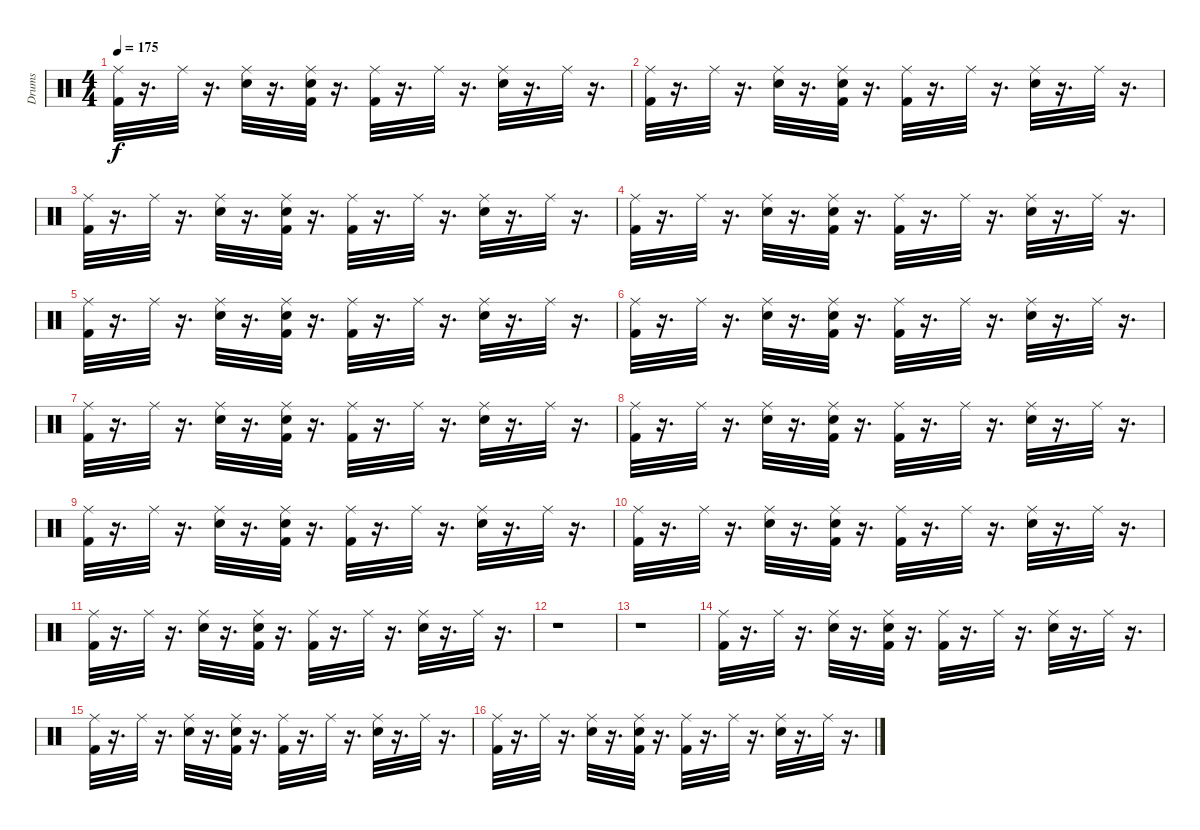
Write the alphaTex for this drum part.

\track ("Drums" "Drums") {instrument percussion}
\staff {score}
\articulation defaults
\ts (4 4)
\tempo 175
\clef neutral
\ks c
("Kick (hit) 2" "Ride (middle)").32{dy f} r.16{d} "Ride (middle)".32 r.16{d} ("Ride (middle)" "Snare (hit) 2").32 r.16{d} ("Snare (hit) 2" "Kick (hit) 2" "Ride (middle)").32 r.16{d} ("Kick (hit) 2" "Ride (middle)").32 r.16{d} "Ride (middle)".32 r.16{d} ("Snare (hit) 2" "Ride (middle)").32 r.16{d} "Ride (middle)".32 r.16{d} |
("Ride (middle)" "Kick (hit) 2").32 r.16{d} "Ride (middle)".32 r.16{d} ("Ride (middle)" "Snare (hit) 2").32 r.16{d} ("Ride (middle)" "Snare (hit) 2" "Kick (hit) 2").32 r.16{d} ("Ride (middle)" "Kick (hit) 2").32 r.16{d} "Ride (middle)".32 r.16{d} ("Ride (middle)" "Snare (hit) 2").32 r.16{d} "Ride (middle)".32 r.16{d} |
("Kick (hit) 2" "Ride (middle)").32 r.16{d} "Ride (middle)".32 r.16{d} ("Snare (hit) 2" "Ride (middle)").32 r.16{d} ("Snare (hit) 2" "Ride (middle)" "Kick (hit) 2").32 r.16{d} ("Ride (middle)" "Kick (hit) 2").32 r.16{d} "Ride (middle)".32 r.16{d} ("Snare (hit) 2" "Ride (middle)").32 r.16{d} "Ride (middle)".32 r.16{d} |
("Kick (hit) 2" "Ride (middle)").32 r.16{d} "Ride (middle)".32 r.16{d} ("Ride (middle)" "Snare (hit) 2").32 r.16{d} ("Kick (hit) 2" "Snare (hit) 2" "Ride (middle)").32 r.16{d} ("Kick (hit) 2" "Ride (middle)").32 r.16{d} "Ride (middle)".32 r.16{d} ("Snare (hit) 2" "Ride (middle)").32 r.16{d} "Ride (middle)".32 r.16{d} |
("Kick (hit) 2" "Ride (middle)").32 r.16{d} "Ride (middle)".32 r.16{d} ("Ride (middle)" "Snare (hit) 2").32 r.16{d} ("Snare (hit) 2" "Kick (hit) 2" "Ride (middle)").32 r.16{d} ("Kick (hit) 2" "Ride (middle)").32 r.16{d} "Ride (middle)".32 r.16{d} ("Snare (hit) 2" "Ride (middle)").32 r.16{d} "Ride (middle)".32 r.16{d} |
("Ride (middle)" "Kick (hit) 2").32 r.16{d} "Ride (middle)".32 r.16{d} ("Ride (middle)" "Snare (hit) 2").32 r.16{d} ("Ride (middle)" "Snare (hit) 2" "Kick (hit) 2").32 r.16{d} ("Ride (middle)" "Kick (hit) 2").32 r.16{d} "Ride (middle)".32 r.16{d} ("Ride (middle)" "Snare (hit) 2").32 r.16{d} "Ride (middle)".32 r.16{d} |
("Kick (hit) 2" "Ride (middle)").32 r.16{d} "Ride (middle)".32 r.16{d} ("Snare (hit) 2" "Ride (middle)").32 r.16{d} ("Snare (hit) 2" "Ride (middle)" "Kick (hit) 2").32 r.16{d} ("Ride (middle)" "Kick (hit) 2").32 r.16{d} "Ride (middle)".32 r.16{d} ("Snare (hit) 2" "Ride (middle)").32 r.16{d} "Ride (middle)".32 r.16{d} |
("Kick (hit) 2" "Ride (middle)").32 r.16{d} "Ride (middle)".32 r.16{d} ("Ride (middle)" "Snare (hit) 2").32 r.16{d} ("Kick (hit) 2" "Snare (hit) 2" "Ride (middle)").32 r.16{d} ("Kick (hit) 2" "Ride (middle)").32 r.16{d} "Ride (middle)".32 r.16{d} ("Snare (hit) 2" "Ride (middle)").32 r.16{d} "Ride (middle)".32 r.16{d} |
("Kick (hit) 2" "Ride (middle)").32 r.16{d} "Ride (middle)".32 r.16{d} ("Ride (middle)" "Snare (hit) 2").32 r.16{d} ("Snare (hit) 2" "Kick (hit) 2" "Ride (middle)").32 r.16{d} ("Kick (hit) 2" "Ride (middle)").32 r.16{d} "Ride (middle)".32 r.16{d} ("Snare (hit) 2" "Ride (middle)").32 r.16{d} "Ride (middle)".32 r.16{d} |
("Kick (hit) 2" "Ride (middle)").32 r.16{d} "Ride (middle)".32 r.16{d} ("Ride (middle)" "Snare (hit) 2").32 r.16{d} ("Snare (hit) 2" "Kick (hit) 2" "Ride (middle)").32 r.16{d} ("Kick (hit) 2" "Ride (middle)").32 r.16{d} "Ride (middle)".32 r.16{d} ("Snare (hit) 2" "Ride (middle)").32 r.16{d} "Ride (middle)".32 r.16{d} |
("Kick (hit) 2" "Ride (middle)").32 r.16{d} "Ride (middle)".32 r.16{d} ("Ride (middle)" "Snare (hit) 2").32 r.16{d} ("Snare (hit) 2" "Kick (hit) 2" "Ride (middle)").32 r.16{d} ("Kick (hit) 2" "Ride (middle)").32 r.16{d} "Ride (middle)".32 r.16{d} ("Snare (hit) 2" "Ride (middle)").32 r.16{d} "Ride (middle)".32 r.16{d} |
r.1 |
r.1 |
("Kick (hit) 2" "Ride (middle)").32 r.16{d} "Ride (middle)".32 r.16{d} ("Ride (middle)" "Snare (hit) 2").32 r.16{d} ("Kick (hit) 2" "Snare (hit) 2" "Ride (middle)").32 r.16{d} ("Kick (hit) 2" "Ride (middle)").32 r.16{d} "Ride (middle)".32 r.16{d} ("Snare (hit) 2" "Ride (middle)").32 r.16{d} "Ride (middle)".32 r.16{d} |
("Kick (hit) 2" "Ride (middle)").32 r.16{d} "Ride (middle)".32 r.16{d} ("Ride (middle)" "Snare (hit) 2").32 r.16{d} ("Snare (hit) 2" "Kick (hit) 2" "Ride (middle)").32 r.16{d} ("Kick (hit) 2" "Ride (middle)").32 r.16{d} "Ride (middle)".32 r.16{d} ("Snare (hit) 2" "Ride (middle)").32 r.16{d} "Ride (middle)".32 r.16{d} |
("Ride (middle)" "Kick (hit) 2").32 r.16{d} "Ride (middle)".32 r.16{d} ("Ride (middle)" "Snare (hit) 2").32 r.16{d} ("Ride (middle)" "Snare (hit) 2" "Kick (hit) 2").32 r.16{d} ("Ride (middle)" "Kick (hit) 2").32 r.16{d} "Ride (middle)".32 r.16{d} ("Ride (middle)" "Snare (hit) 2").32 r.16{d} "Ride (middle)".32 r.16{d}
